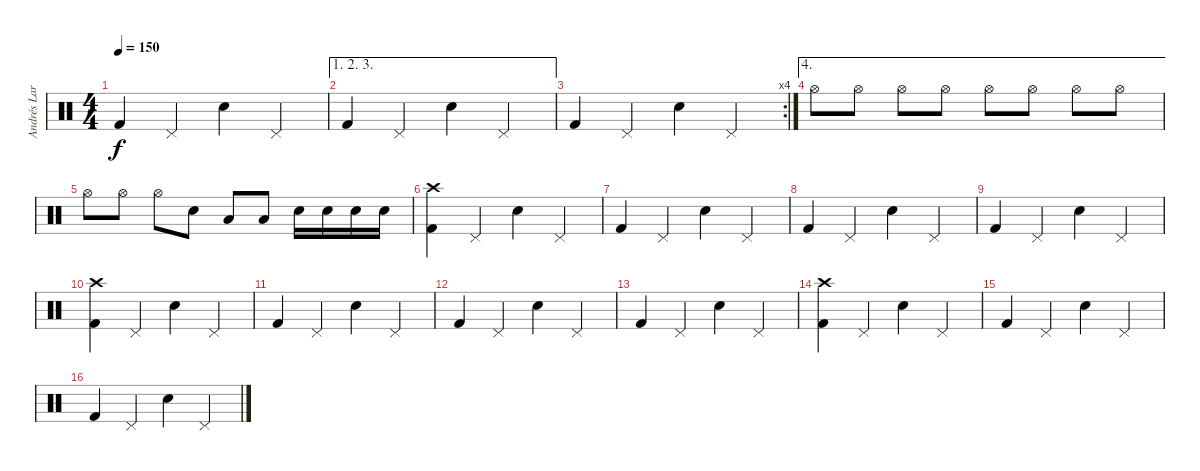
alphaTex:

\track ("Andrés Larraín (batería)" "Andrés Lar") {instrument percussion}
\staff {score}
\articulation defaults
\ts (4 4)
\tempo 150
\clef neutral
\ks c "Kick (hit) 2".4{dy f} "Pedal Hi-Hat (hit)".4 "Electric Snare (hit)".4 "Pedal Hi-Hat (hit)".4
|
\ae (1 2 3)
"Kick (hit) 2".4 "Pedal Hi-Hat (hit)".4 "Electric Snare (hit)".4 "Pedal Hi-Hat (hit)".4 |
\rc 4 "Kick (hit) 2".4 "Pedal Hi-Hat (hit)".4 "Electric Snare (hit)".4 "Pedal Hi-Hat (hit)".4
|
\ae 4 "Hi-Hat (open)".8 "Hi-Hat (open)".8 "Hi-Hat (open)".8 "Hi-Hat (open)".8 "Hi-Hat (open)".8 "Hi-Hat (open)".8 "Hi-Hat (open)".8 "Hi-Hat (open)".8
|
"Hi-Hat (open)".8 "Hi-Hat (open)".8 "Hi-Hat (open)".8 "Snare (hit) 2".8 "Low Floor Tom (hit)".8 "Low Floor Tom (hit)".8 "Snare (hit) 2".16 "Electric Snare (hit)".16 "Snare (hit) 2".16 "Electric Snare (hit)".16 |
("Crash high (hit)" "Kick (hit) 2").4 "Pedal Hi-Hat (hit)".4 "Electric Snare (hit)".4 "Pedal Hi-Hat (hit)".4 |
"Kick (hit) 2".4 "Pedal Hi-Hat (hit)".4 "Electric Snare (hit)".4 "Pedal Hi-Hat (hit)".4 |
"Kick (hit) 2".4 "Pedal Hi-Hat (hit)".4 "Electric Snare (hit)".4 "Pedal Hi-Hat (hit)".4 |
"Kick (hit) 2".4 "Pedal Hi-Hat (hit)".4 "Electric Snare (hit)".4 "Pedal Hi-Hat (hit)".4 |
("Crash high (hit)" "Kick (hit) 2").4 "Pedal Hi-Hat (hit)".4 "Electric Snare (hit)".4 "Pedal Hi-Hat (hit)".4 |
"Kick (hit) 2".4 "Pedal Hi-Hat (hit)".4 "Electric Snare (hit)".4 "Pedal Hi-Hat (hit)".4 |
"Kick (hit) 2".4 "Pedal Hi-Hat (hit)".4 "Electric Snare (hit)".4 "Pedal Hi-Hat (hit)".4 |
"Kick (hit) 2".4 "Pedal Hi-Hat (hit)".4 "Electric Snare (hit)".4 "Pedal Hi-Hat (hit)".4 |
("Crash high (hit)" "Kick (hit) 2").4 "Pedal Hi-Hat (hit)".4 "Electric Snare (hit)".4 "Pedal Hi-Hat (hit)".4 |
"Kick (hit) 2".4 "Pedal Hi-Hat (hit)".4 "Electric Snare (hit)".4 "Pedal Hi-Hat (hit)".4 |
"Kick (hit) 2".4 "Pedal Hi-Hat (hit)".4 "Electric Snare (hit)".4 "Pedal Hi-Hat (hit)".4
